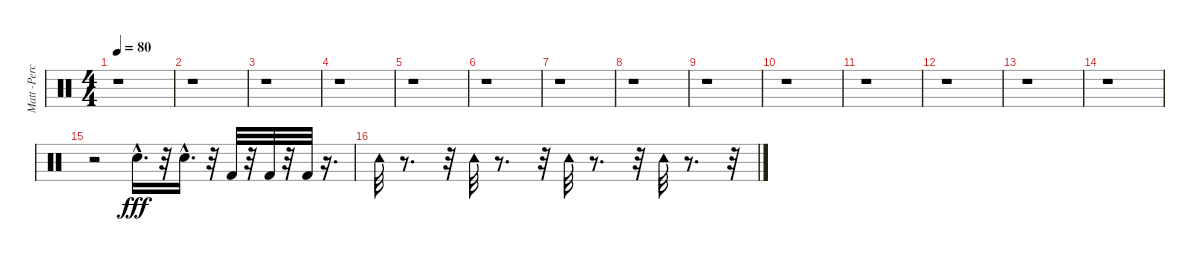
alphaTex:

\track ("Matt -Percussion-" "Matt -Perc") {instrument percussion}
\staff {score}
\articulation defaults
\ts (4 4)
\tempo 80
\clef neutral
\ks c
r.1{dy fff} |
r.1 |
r.1 |
r.1 |
r.1 |
r.1 |
r.1 |
r.1 |
r.1 |
r.1 |
r.1 |
r.1 |
r.1 |
r.1 |
r.2 "Snare (hit) 2"{hac}.16{d} r.32 "Snare (hit) 2"{hac}.16{d} r.32 "Kick (hit) 2".32 r.32 "Kick (hit) 2".32 r.32 "Kick (hit) 2".32 r.16{d} |
"Tambourine (hit)".32 r.8{d} r.32 "Tambourine (hit)".32 r.8{d} r.32 "Tambourine (hit)".32 r.8{d} r.32 "Tambourine (hit)".32 r.8{d} r.32
